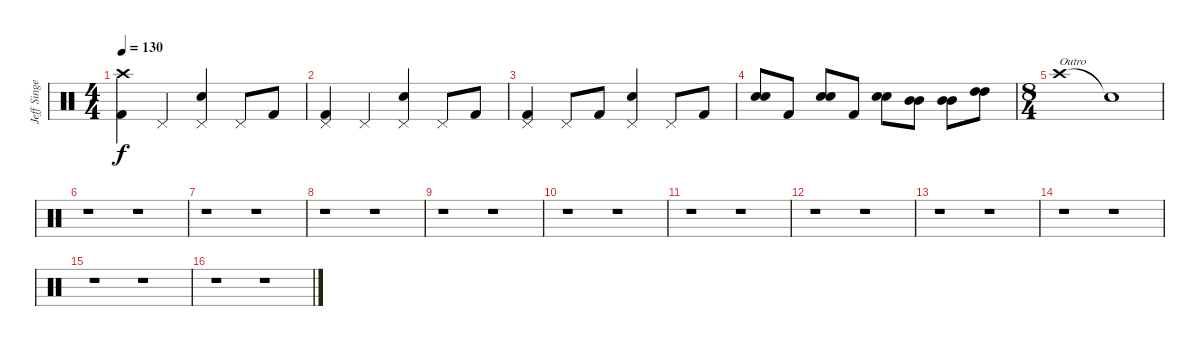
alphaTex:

\track ("Jeff Singer" "Jeff Singe") {instrument percussion}
\staff {score}
\articulation defaults
\ts (4 4)
\tempo 130
\clef neutral
\ks c
("Crash high (hit)" "Kick (hit) 2").4{dy f} "Pedal Hi-Hat (hit)".4 ("Pedal Hi-Hat (hit)" "Snare (hit) 2").4 "Pedal Hi-Hat (hit)".8 "Kick (hit) 2".8 |
("Pedal Hi-Hat (hit)" "Kick (hit) 2").4 "Pedal Hi-Hat (hit)".4 ("Pedal Hi-Hat (hit)" "Snare (hit) 2").4 "Pedal Hi-Hat (hit)".8 "Kick (hit) 2".8 |
("Pedal Hi-Hat (hit)" "Kick (hit) 2").4 "Pedal Hi-Hat (hit)".8 "Kick (hit) 2".8 ("Pedal Hi-Hat (hit)" "Snare (hit) 2").4 "Pedal Hi-Hat (hit)".8 "Kick (hit) 2".8 |
("Snare (hit) 2" "Snare (hit) 2").8 "Kick (hit) 2".8 ("Snare (hit) 2" "Snare (hit) 2").8 "Kick (hit) 2".8 ("Snare (hit) 2" "Snare (hit) 2").8 ("Mid Tom (hit)" "Mid Tom (hit)").8 ("Mid Tom (hit)" "Mid Tom (hit)").8 ("High Tom (hit)" "High Tom (hit)").8 |
\ts (8 4)
"Crash high (hit)".1{txt "Outro"} "Snare (hit)"{t}.1 |
r.1 r.1 |
r.1 r.1 |
r.1 r.1 |
r.1 r.1 |
r.1 r.1 |
r.1 r.1 |
r.1 r.1 |
r.1 r.1 |
r.1 r.1 |
r.1 r.1 |
r.1 r.1
